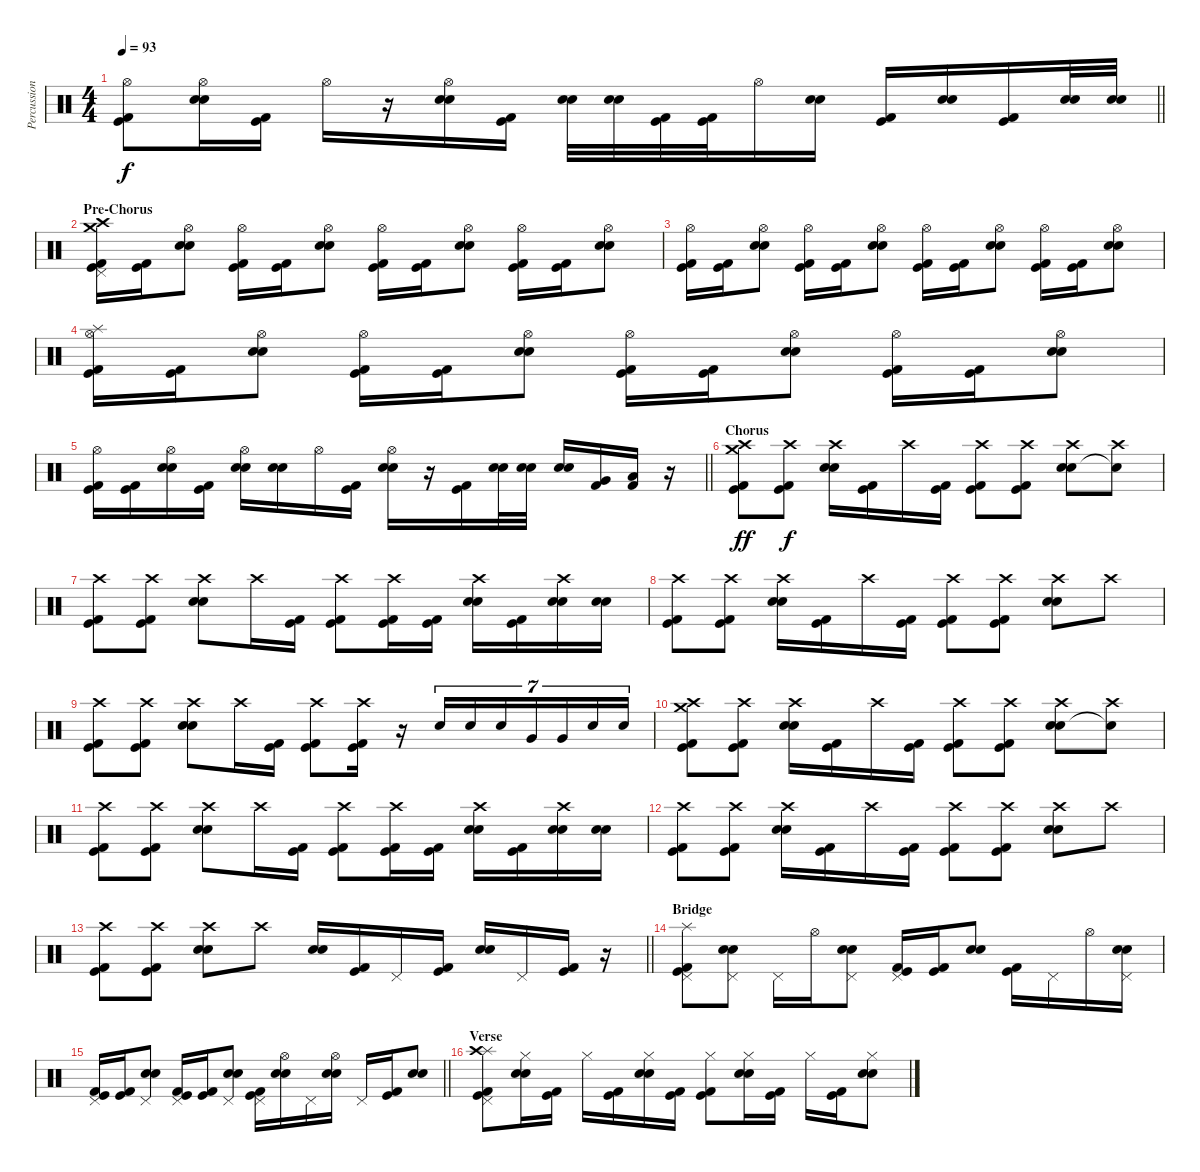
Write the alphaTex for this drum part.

\track ("Percussion" "Percussion") {instrument percussion}
\staff {score}
\articulation defaults
\ts (4 4)
\tempo 93
\clef neutral
\barLineRight lightlight
\ks c
("Kick (hit) 2" "Kick (hit)" "Hi-Hat (open)").8{dy f} ("Electric Snare (hit)" "Snare (hit) 2" "Hi-Hat (open)").16 ("Kick (hit) 2" "Kick (hit)").16 "Hi-Hat (open)".16 r.16 ("Electric Snare (hit)" "Snare (hit) 2" "Hi-Hat (open)").16 ("Kick (hit) 2" "Kick (hit)").16 ("Electric Snare (hit)" "Snare (hit) 2").32 ("Electric Snare (hit)" "Snare (hit) 2").32 ("Kick (hit) 2" "Kick (hit)").32 ("Kick (hit) 2" "Kick (hit)").32 "Hi-Hat (open)".16 ("Electric Snare (hit)" "Snare (hit) 2").16 ("Kick (hit) 2" "Kick (hit)").16 ("Electric Snare (hit)" "Snare (hit) 2").16 ("Kick (hit) 2" "Kick (hit)").16 ("Electric Snare (hit)" "Snare (hit) 2").32 ("Electric Snare (hit)" "Snare (hit) 2").32 |
\section ("" "Pre-Chorus")
("Kick (hit) 2" "Kick (hit)" "Pedal Hi-Hat (hit)" "Crash medium (hit)" "Crash high (hit)").16 ("Kick (hit) 2" "Kick (hit)").16 ("Electric Snare (hit)" "Snare (hit) 2" "Hi-Hat (open)").8 ("Kick (hit) 2" "Kick (hit)" "Hi-Hat (open)").16 ("Kick (hit) 2" "Kick (hit)").16 ("Electric Snare (hit)" "Snare (hit) 2" "Hi-Hat (open)").8 ("Kick (hit) 2" "Kick (hit)" "Hi-Hat (open)").16 ("Kick (hit) 2" "Kick (hit)").16 ("Electric Snare (hit)" "Snare (hit) 2" "Hi-Hat (open)").8 ("Kick (hit) 2" "Kick (hit)" "Hi-Hat (open)").16 ("Kick (hit) 2" "Kick (hit)").16 ("Electric Snare (hit)" "Snare (hit) 2" "Hi-Hat (open)").8 |
("Kick (hit) 2" "Kick (hit)" "Hi-Hat (open)").16 ("Kick (hit) 2" "Kick (hit)").16 ("Electric Snare (hit)" "Snare (hit) 2" "Hi-Hat (open)").8 ("Kick (hit) 2" "Kick (hit)" "Hi-Hat (open)").16 ("Kick (hit) 2" "Kick (hit)").16 ("Electric Snare (hit)" "Snare (hit) 2" "Hi-Hat (open)").8 ("Kick (hit) 2" "Kick (hit)" "Hi-Hat (open)").16 ("Kick (hit) 2" "Kick (hit)").16 ("Electric Snare (hit)" "Snare (hit) 2" "Hi-Hat (open)").8 ("Kick (hit) 2" "Kick (hit)" "Hi-Hat (open)").16 ("Kick (hit) 2" "Kick (hit)").16 ("Electric Snare (hit)" "Snare (hit) 2" "Hi-Hat (open)").8 |
("Kick (hit) 2" "Kick (hit)" "Hi-Hat (open)" "Splash (hit)").16 ("Kick (hit) 2" "Kick (hit)").16 ("Electric Snare (hit)" "Snare (hit) 2" "Hi-Hat (open)").8 ("Kick (hit) 2" "Kick (hit)" "Hi-Hat (open)").16 ("Kick (hit) 2" "Kick (hit)").16 ("Electric Snare (hit)" "Snare (hit) 2" "Hi-Hat (open)").8 ("Kick (hit) 2" "Kick (hit)" "Hi-Hat (open)").16 ("Kick (hit) 2" "Kick (hit)").16 ("Electric Snare (hit)" "Snare (hit) 2" "Hi-Hat (open)").8 ("Kick (hit) 2" "Kick (hit)" "Hi-Hat (open)").16 ("Kick (hit) 2" "Kick (hit)").16 ("Electric Snare (hit)" "Snare (hit) 2" "Hi-Hat (open)").8 |
\barLineRight lightlight
("Kick (hit) 2" "Kick (hit)" "Hi-Hat (open)").16 ("Kick (hit) 2" "Kick (hit)").16 ("Electric Snare (hit)" "Snare (hit) 2" "Hi-Hat (open)").16 ("Kick (hit) 2" "Kick (hit)").16 ("Electric Snare (hit)" "Snare (hit) 2" "Hi-Hat (open)").16 ("Electric Snare (hit)" "Snare (hit) 2").16 "Hi-Hat (open)".16 ("Kick (hit) 2" "Kick (hit)").16 ("Electric Snare (hit)" "Snare (hit) 2" "Hi-Hat (open)").16 r.16 ("Kick (hit) 2" "Kick (hit)").16 ("Electric Snare (hit)" "Snare (hit) 2").32 ("Electric Snare (hit)" "Snare (hit) 2").32 ("Electric Snare (hit)" "Snare (hit) 2").16 ("Kick (hit) 2" "Very Low Tom (hit)").16 ("Kick (hit) 2" "Low Floor Tom (hit)").16 r.16 |
\section ("" "Chorus")
("Kick (hit) 2" "Kick (hit)" "Crash high (hit)" "Crash medium (hit)").8{dy ff} ("Kick (hit) 2" "Kick (hit)" "Crash high (hit)").8{dy f} ("Electric Snare (hit)" "Snare (hit) 2" "Crash high (hit)").16 ("Kick (hit) 2" "Kick (hit)").16 "Crash high (hit)".16 ("Kick (hit) 2" "Kick (hit)").16 ("Kick (hit) 2" "Kick (hit)" "Crash high (hit)").8 ("Kick (hit) 2" "Kick (hit)" "Crash high (hit)").8 ("Electric Snare (hit)" "Snare (hit) 2" "Crash high (hit)").8 ("Crash high (hit)" "Snare (hit)"{t}).8 |
("Kick (hit) 2" "Kick (hit)" "Crash high (hit)").8 ("Kick (hit) 2" "Kick (hit)" "Crash high (hit)").8 ("Electric Snare (hit)" "Snare (hit) 2" "Crash high (hit)").8 "Crash high (hit)".16 ("Kick (hit) 2" "Kick (hit)").16 ("Kick (hit) 2" "Kick (hit)" "Crash high (hit)").8 ("Kick (hit) 2" "Kick (hit)" "Crash high (hit)").16 ("Kick (hit) 2" "Kick (hit)").16 ("Electric Snare (hit)" "Snare (hit) 2" "Crash high (hit)").16 ("Kick (hit) 2" "Kick (hit)").16 ("Electric Snare (hit)" "Snare (hit) 2" "Crash high (hit)").16 ("Electric Snare (hit)" "Snare (hit) 2").16 |
("Kick (hit) 2" "Kick (hit)" "Crash high (hit)").8 ("Kick (hit) 2" "Kick (hit)" "Crash high (hit)").8 ("Electric Snare (hit)" "Snare (hit) 2" "Crash high (hit)").16 ("Kick (hit) 2" "Kick (hit)").16 "Crash high (hit)".16 ("Kick (hit) 2" "Kick (hit)").16 ("Kick (hit) 2" "Kick (hit)" "Crash high (hit)").8 ("Kick (hit) 2" "Kick (hit)" "Crash high (hit)").8 ("Electric Snare (hit)" "Snare (hit) 2" "Crash high (hit)").8 "Crash high (hit)".8 |
("Kick (hit) 2" "Kick (hit)" "Crash high (hit)").8 ("Kick (hit) 2" "Kick (hit)" "Crash high (hit)").8 ("Electric Snare (hit)" "Snare (hit) 2" "Crash high (hit)").8 "Crash high (hit)".16 ("Kick (hit) 2" "Kick (hit)").16 ("Kick (hit) 2" "Kick (hit)" "Crash high (hit)").8 ("Kick (hit) 2" "Kick (hit)" "Crash high (hit)").16 r.16 "Snare (hit) 2".16{tu (7 4)} "Snare (hit) 2".16{tu (7 4)} "Snare (hit) 2".16{tu (7 4)} "Very Low Tom (hit)".16{tu (7 4)} "Very Low Tom (hit)".16{tu (7 4)} "Snare (hit) 2".16{tu (7 4)} "Snare (hit) 2".16{tu (7 4)} |
("Kick (hit) 2" "Kick (hit)" "Crash high (hit)" "Crash medium (hit)").8 ("Kick (hit) 2" "Kick (hit)" "Crash high (hit)").8 ("Electric Snare (hit)" "Snare (hit) 2" "Crash high (hit)").16 ("Kick (hit) 2" "Kick (hit)").16 "Crash high (hit)".16 ("Kick (hit) 2" "Kick (hit)").16 ("Kick (hit) 2" "Kick (hit)" "Crash high (hit)").8 ("Kick (hit) 2" "Kick (hit)" "Crash high (hit)").8 ("Electric Snare (hit)" "Snare (hit) 2" "Crash high (hit)").8 ("Crash high (hit)" "Snare (hit)"{t}).8 |
("Kick (hit) 2" "Kick (hit)" "Crash high (hit)").8 ("Kick (hit) 2" "Kick (hit)" "Crash high (hit)").8 ("Electric Snare (hit)" "Snare (hit) 2" "Crash high (hit)").8 "Crash high (hit)".16 ("Kick (hit) 2" "Kick (hit)").16 ("Kick (hit) 2" "Kick (hit)" "Crash high (hit)").8 ("Kick (hit) 2" "Kick (hit)" "Crash high (hit)").16 ("Kick (hit) 2" "Kick (hit)").16 ("Electric Snare (hit)" "Snare (hit) 2" "Crash high (hit)").16 ("Kick (hit) 2" "Kick (hit)").16 ("Electric Snare (hit)" "Snare (hit) 2" "Crash high (hit)").16 ("Electric Snare (hit)" "Snare (hit) 2").16 |
("Kick (hit) 2" "Kick (hit)" "Crash high (hit)").8 ("Kick (hit) 2" "Kick (hit)" "Crash high (hit)").8 ("Electric Snare (hit)" "Snare (hit) 2" "Crash high (hit)").16 ("Kick (hit) 2" "Kick (hit)").16 "Crash high (hit)".16 ("Kick (hit) 2" "Kick (hit)").16 ("Kick (hit) 2" "Kick (hit)" "Crash high (hit)").8 ("Kick (hit) 2" "Kick (hit)" "Crash high (hit)").8 ("Electric Snare (hit)" "Snare (hit) 2" "Crash high (hit)").8 "Crash high (hit)".8 |
\barLineRight lightlight
("Kick (hit) 2" "Kick (hit)" "Crash high (hit)").8 ("Kick (hit) 2" "Kick (hit)" "Crash high (hit)").8 ("Electric Snare (hit)" "Snare (hit) 2" "Crash high (hit)").8 "Crash high (hit)".8 ("Electric Snare (hit)" "Snare (hit) 2").16 ("Kick (hit) 2" "Kick (hit)").16 "Pedal Hi-Hat (hit)".16 ("Kick (hit) 2" "Kick (hit)").16 ("Electric Snare (hit)" "Snare (hit) 2").16 "Pedal Hi-Hat (hit)".16 ("Kick (hit) 2" "Kick (hit)").16 r.16 |
\section ("" "Bridge")
("Kick (hit) 2" "Kick (hit)" "Pedal Hi-Hat (hit)" "Splash (hit)").8 ("Electric Snare (hit)" "Snare (hit) 2" "Pedal Hi-Hat (hit)").8 "Pedal Hi-Hat (hit)".16 "Hi-Hat (open)".16 ("Electric Snare (hit)" "Snare (hit) 2" "Pedal Hi-Hat (hit)").8 ("Kick (hit) 2" "Kick (hit)" "Pedal Hi-Hat (hit)").16 ("Kick (hit) 2" "Kick (hit)").16 ("Electric Snare (hit)" "Snare (hit) 2").8 ("Kick (hit) 2" "Kick (hit)").16 "Pedal Hi-Hat (hit)".16 "Hi-Hat (open)".16 ("Electric Snare (hit)" "Snare (hit) 2" "Pedal Hi-Hat (hit)").16 |
\barLineRight lightlight
("Kick (hit) 2" "Kick (hit)" "Pedal Hi-Hat (hit)").16 ("Kick (hit) 2" "Kick (hit)").16 ("Electric Snare (hit)" "Snare (hit) 2" "Pedal Hi-Hat (hit)").8 ("Kick (hit) 2" "Kick (hit)" "Pedal Hi-Hat (hit)").16 ("Kick (hit) 2" "Kick (hit)").16 ("Electric Snare (hit)" "Snare (hit) 2" "Pedal Hi-Hat (hit)").8 ("Kick (hit) 2" "Kick (hit)" "Pedal Hi-Hat (hit)").16 ("Electric Snare (hit)" "Snare (hit) 2" "Hi-Hat (open)").16 "Pedal Hi-Hat (hit)".16 ("Electric Snare (hit)" "Snare (hit) 2" "Hi-Hat (open)").16 "Pedal Hi-Hat (hit)".16 ("Kick (hit) 2" "Kick (hit)").16 ("Electric Snare (hit)" "Snare (hit) 2").8 |
\section ("" "Verse")
("Kick (hit) 2" "Kick (hit)" "Pedal Hi-Hat (hit)" "Splash (hit)" "Crash high (hit)").8 ("Electric Snare (hit)" "Snare (hit) 2" "Hi-Hat (closed)").16 ("Kick (hit) 2" "Kick (hit)").16 "Hi-Hat (closed)".16 ("Kick (hit) 2" "Kick (hit)").16 ("Electric Snare (hit)" "Snare (hit) 2" "Hi-Hat (closed)").16 ("Kick (hit) 2" "Kick (hit)").16 ("Kick (hit) 2" "Kick (hit)" "Hi-Hat (closed)").8 ("Electric Snare (hit)" "Snare (hit) 2" "Hi-Hat (closed)").16 ("Kick (hit) 2" "Kick (hit)").16 "Hi-Hat (closed)".16 ("Kick (hit) 2" "Kick (hit)").16 ("Electric Snare (hit)" "Snare (hit) 2" "Hi-Hat (closed)").8
